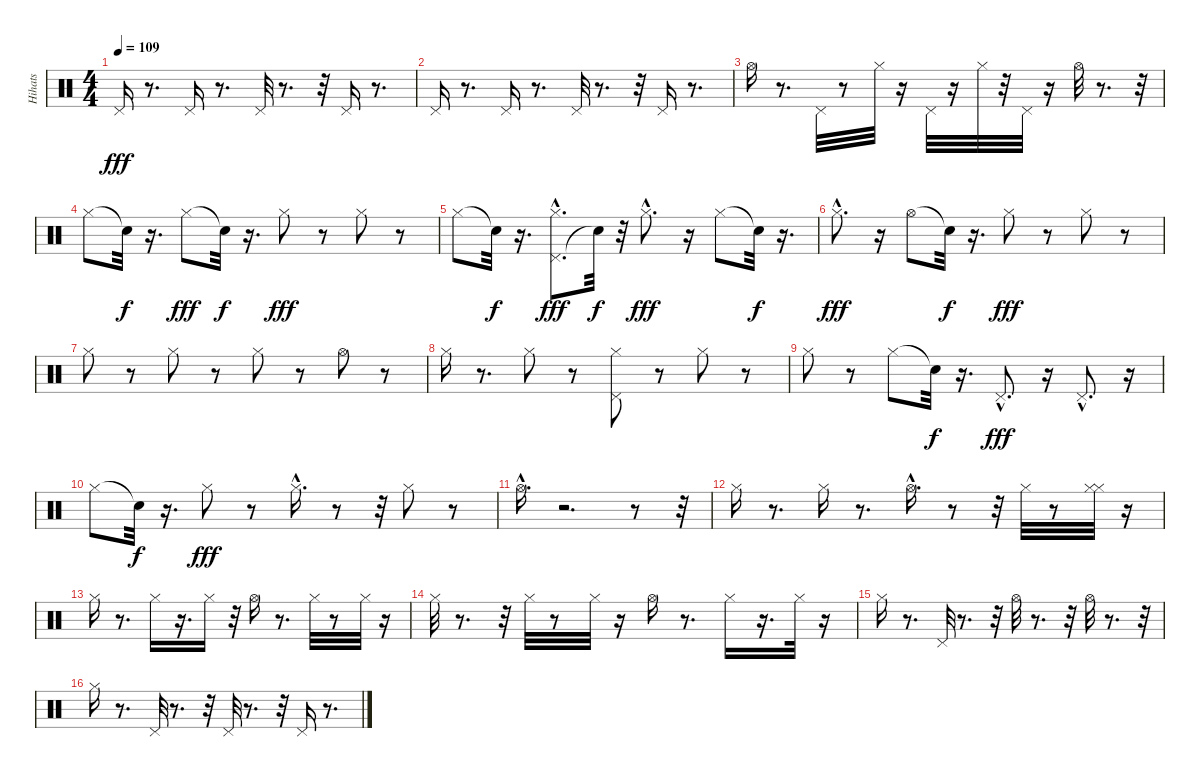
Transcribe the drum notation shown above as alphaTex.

\track ("Hihats          " "Hihats    ") {instrument percussion}
\staff {score}
\articulation defaults
\ts (4 4)
\tempo 109
\clef neutral
\ks c "Pedal Hi-Hat (hit)".16{dy fff}
r.8{d} "Pedal Hi-Hat (hit)".16 r.8{d} "Pedal Hi-Hat (hit)".32 r.8{d} r.32 "Pedal Hi-Hat (hit)".16 r.8{d} |
"Pedal Hi-Hat (hit)".16 r.8{d} "Pedal Hi-Hat (hit)".16 r.8{d} "Pedal Hi-Hat (hit)".32 r.8{d} r.32 "Pedal Hi-Hat (hit)".16 r.8{d} |
"Hi-Hat (open)".16 r.8{d} "Pedal Hi-Hat (hit)".32 r.8 "Hi-Hat (closed)".32 r.16 "Pedal Hi-Hat (hit)".32 r.16 "Hi-Hat (closed)".32 r.32 "Pedal Hi-Hat (hit)".32 r.16 "Hi-Hat (open)".32 r.8{d} r.32 |
"Hi-Hat (closed)".8 "Snare (hit)"{t}.32{dy f} r.16{d} "Hi-Hat (closed)".8{dy fff} "Snare (hit)"{t}.32{dy f} r.16{d} "Hi-Hat (closed)".8{dy fff} r.8 "Hi-Hat (closed)".8 r.8 |
"Hi-Hat (closed)".8 "Snare (hit)"{t}.32{dy f} r.16{d} ("Pedal Hi-Hat (hit)"{hac} "Hi-Hat (closed)").8{d dy fff} "Snare (hit)"{t}.32{dy f} r.32 "Hi-Hat (closed)"{hac}.8{d dy fff} r.16 "Hi-Hat (closed)".8 "Snare (hit)"{t}.32{dy f} r.16{d} |
"Hi-Hat (closed)"{hac}.8{d dy fff} r.16 "Hi-Hat (open)".8 "Snare (hit)"{t}.32{dy f} r.16{d} "Hi-Hat (closed)".8{dy fff} r.8 "Hi-Hat (closed)".8 r.8 |
"Hi-Hat (closed)".8 r.8 "Hi-Hat (closed)".8 r.8 "Hi-Hat (closed)".8 r.8 "Hi-Hat (open)".8 r.8 |
"Hi-Hat (closed)".16 r.8{d} "Hi-Hat (closed)".8 r.8 ("Pedal Hi-Hat (hit)" "Hi-Hat (closed)").8 r.8 "Hi-Hat (closed)".8 r.8 |
"Hi-Hat (closed)".8 r.8 "Hi-Hat (closed)".8 "Snare (hit)"{t}.32{dy f} r.16{d} "Pedal Hi-Hat (hit)"{hac}.8{d dy fff} r.16 "Pedal Hi-Hat (hit)"{hac}.8{d} r.16 |
"Hi-Hat (closed)".8 "Snare (hit)"{t}.32{dy f} r.16{d} "Hi-Hat (closed)".8{dy fff} r.8 "Hi-Hat (closed)"{hac}.16{d} r.8 r.32 "Hi-Hat (closed)".8 r.8 |
"Hi-Hat (open)"{hac}.16{d} r.2{d} r.8 r.32 |
"Hi-Hat (closed)".16 r.8{d} "Hi-Hat (closed)".16 r.8{d} "Hi-Hat (open)"{hac}.16{d} r.8 r.32 "Hi-Hat (closed)".32 r.8 ("Hi-Hat (closed)" "Hi-Hat (closed)").32 r.16 |
"Hi-Hat (closed)".16 r.8{d} "Hi-Hat (closed)".16 r.16{d} "Hi-Hat (closed)".16 r.32 "Hi-Hat (open)".16 r.8{d} "Hi-Hat (closed)".32 r.8 "Hi-Hat (closed)".32 r.16 |
"Hi-Hat (closed)".32 r.8{d} r.32 "Hi-Hat (closed)".32 r.8 "Hi-Hat (closed)".32 r.16 "Hi-Hat (open)".16 r.8{d} "Hi-Hat (closed)".16 r.16{d} "Hi-Hat (closed)".32 r.16 |
"Hi-Hat (closed)".16 r.8{d} "Pedal Hi-Hat (hit)".32 r.8{d} r.32 "Hi-Hat (open)".32 r.8{d} r.32 "Hi-Hat (open)".32 r.8{d} r.32 |
"Hi-Hat (closed)".16 r.8{d} "Pedal Hi-Hat (hit)".32 r.8{d} r.32 "Pedal Hi-Hat (hit)".32 r.8{d} r.32 "Pedal Hi-Hat (hit)".16 r.8{d}
